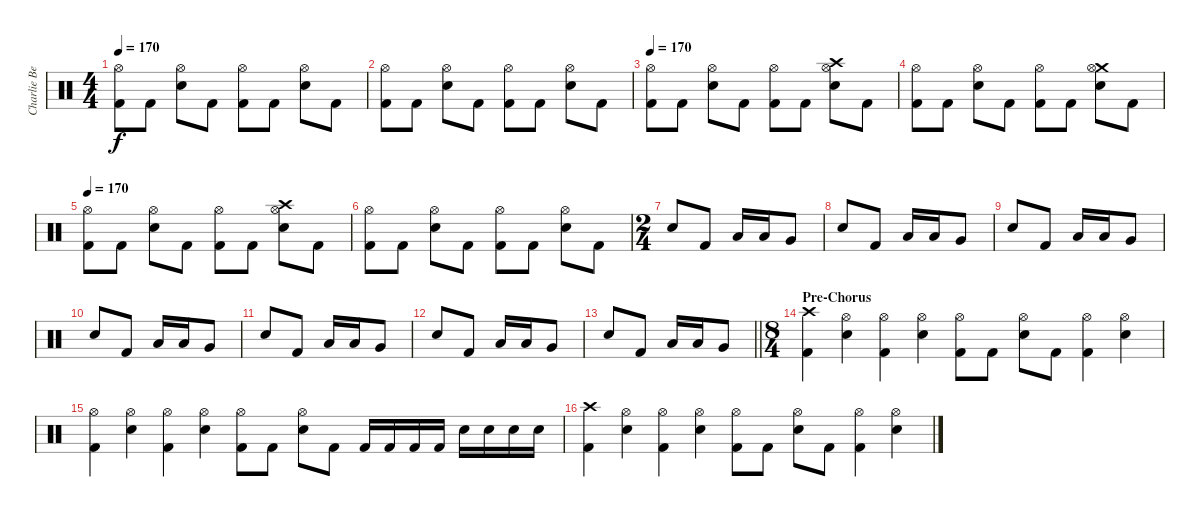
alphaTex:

\track ("Charlie Benante" "Charlie Be") {instrument percussion}
\staff {score}
\articulation defaults
\ts (4 4)
\tempo 170
\clef neutral
\ks c
("Hi-Hat (open)" "Kick (hit) 2").8{dy f} "Kick (hit) 2".8 ("Hi-Hat (open)" "Electric Snare (hit)").8 "Kick (hit) 2".8 ("Hi-Hat (open)" "Kick (hit) 2").8 "Kick (hit) 2".8 ("Hi-Hat (open)" "Electric Snare (hit)").8 "Kick (hit) 2".8 |
("Hi-Hat (open)" "Kick (hit) 2").8 "Kick (hit) 2".8 ("Hi-Hat (open)" "Electric Snare (hit)").8 "Kick (hit) 2".8 ("Hi-Hat (open)" "Kick (hit) 2").8 "Kick (hit) 2".8 ("Hi-Hat (open)" "Electric Snare (hit)").8 "Kick (hit) 2".8 |
\tempo 170
("Hi-Hat (open)" "Kick (hit) 2").8 "Kick (hit) 2".8 ("Hi-Hat (open)" "Electric Snare (hit)").8 "Kick (hit) 2".8 ("Hi-Hat (open)" "Kick (hit) 2").8 "Kick (hit) 2".8 ("Crash high (hit)" "Hi-Hat (open)" "Electric Snare (hit)").8 "Kick (hit) 2".8 |
("Hi-Hat (open)" "Kick (hit) 2").8 "Kick (hit) 2".8 ("Hi-Hat (open)" "Electric Snare (hit)").8 "Kick (hit) 2".8 ("Hi-Hat (open)" "Kick (hit) 2").8 "Kick (hit) 2".8 ("Crash medium (hit)" "Hi-Hat (open)" "Electric Snare (hit)").8 "Kick (hit) 2".8 |
\tempo 170
("Hi-Hat (open)" "Kick (hit) 2").8 "Kick (hit) 2".8 ("Hi-Hat (open)" "Electric Snare (hit)").8 "Kick (hit) 2".8 ("Hi-Hat (open)" "Kick (hit) 2").8 "Kick (hit) 2".8 ("Crash high (hit)" "Hi-Hat (open)" "Electric Snare (hit)").8 "Kick (hit) 2".8 |
("Hi-Hat (open)" "Kick (hit) 2").8 "Kick (hit) 2".8 ("Hi-Hat (open)" "Electric Snare (hit)").8 "Kick (hit) 2".8 ("Hi-Hat (open)" "Kick (hit) 2").8 "Kick (hit) 2".8 ("Hi-Hat (open)" "Electric Snare (hit)").8 "Kick (hit) 2".8 |
\ts (2 4)
"Electric Snare (hit)".8 "Kick (hit) 2".8 "Low Tom (hit)".16 "Low Tom (hit)".16 "Very Low Tom (hit)".8 |
"Electric Snare (hit)".8 "Kick (hit) 2".8 "Low Tom (hit)".16 "Low Tom (hit)".16 "Very Low Tom (hit)".8 |
"Electric Snare (hit)".8 "Kick (hit) 2".8 "Low Tom (hit)".16 "Low Tom (hit)".16 "Very Low Tom (hit)".8 |
"Electric Snare (hit)".8 "Kick (hit) 2".8 "Low Tom (hit)".16 "Low Tom (hit)".16 "Very Low Tom (hit)".8 |
"Electric Snare (hit)".8 "Kick (hit) 2".8 "Low Tom (hit)".16 "Low Tom (hit)".16 "Very Low Tom (hit)".8 |
"Electric Snare (hit)".8 "Kick (hit) 2".8 "Low Tom (hit)".16 "Low Tom (hit)".16 "Very Low Tom (hit)".8 |
\barLineRight lightlight "Electric Snare (hit)".8 "Kick (hit) 2".8 "Low Tom (hit)".16 "Low Tom (hit)".16 "Very Low Tom (hit)".8
|
\ts (8 4)
\section ("" "Pre-Chorus")
("Crash high (hit)" "Kick (hit) 2").4 ("Hi-Hat (open)" "Electric Snare (hit)").4 ("Hi-Hat (open)" "Kick (hit) 2").4 ("Hi-Hat (open)" "Electric Snare (hit)").4 ("Hi-Hat (open)" "Kick (hit) 2").8 "Kick (hit) 2".8 ("Hi-Hat (open)" "Electric Snare (hit)").8 "Kick (hit) 2".8 ("Hi-Hat (open)" "Kick (hit) 2").4 ("Hi-Hat (open)" "Electric Snare (hit)").4 |
("Hi-Hat (open)" "Kick (hit) 2").4 ("Hi-Hat (open)" "Electric Snare (hit)").4 ("Hi-Hat (open)" "Kick (hit) 2").4 ("Hi-Hat (open)" "Electric Snare (hit)").4 ("Hi-Hat (open)" "Kick (hit) 2").8 "Kick (hit) 2".8 ("Hi-Hat (open)" "Electric Snare (hit)").8 "Kick (hit) 2".8 "Kick (hit) 2".16 "Kick (hit) 2".16 "Kick (hit) 2".16 "Kick (hit) 2".16 "Electric Snare (hit)".16 "Electric Snare (hit)".16 "Electric Snare (hit)".16 "Electric Snare (hit)".16 |
("Crash high (hit)" "Kick (hit) 2").4 ("Hi-Hat (open)" "Electric Snare (hit)").4 ("Hi-Hat (open)" "Kick (hit) 2").4 ("Hi-Hat (open)" "Electric Snare (hit)").4 ("Hi-Hat (open)" "Kick (hit) 2").8 "Kick (hit) 2".8 ("Hi-Hat (open)" "Electric Snare (hit)").8 "Kick (hit) 2".8 ("Hi-Hat (open)" "Kick (hit) 2").4 ("Hi-Hat (open)" "Electric Snare (hit)").4
